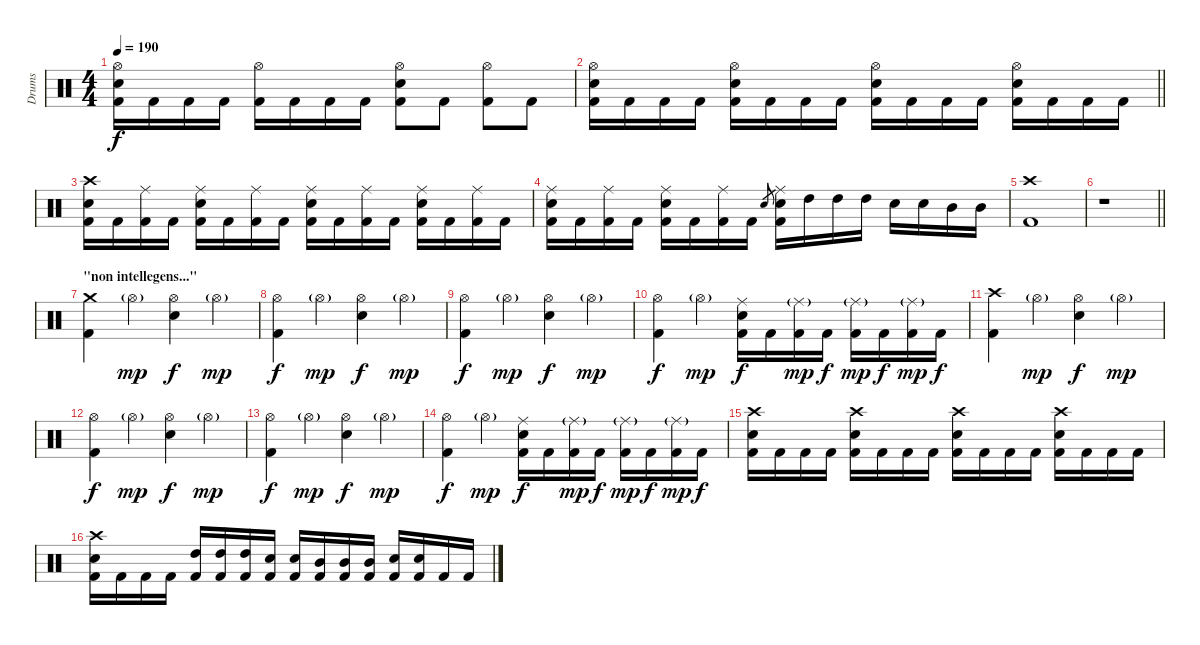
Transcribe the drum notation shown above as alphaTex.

\track ("Drums" "Drums") {instrument percussion}
\staff {score}
\articulation defaults
\ts (4 4)
\tempo 190
\clef neutral
\ks c
("Hi-Hat (open)" "Snare (hit) 2" "Kick (hit) 2").16{dy f} "Kick (hit) 2".16 "Kick (hit) 2".16 "Kick (hit) 2".16 ("Hi-Hat (open)" "Kick (hit) 2").16 "Kick (hit) 2".16 "Kick (hit) 2".16 "Kick (hit) 2".16 ("Hi-Hat (open)" "Snare (hit) 2" "Kick (hit) 2").8 "Kick (hit) 2".8 ("Hi-Hat (open)" "Kick (hit) 2").8 "Kick (hit) 2".8 |
\barLineRight lightlight
("Hi-Hat (open)" "Snare (hit) 2" "Kick (hit) 2").16 "Kick (hit) 2".16 "Kick (hit) 2".16 "Kick (hit) 2".16 ("Hi-Hat (open)" "Snare (hit) 2" "Kick (hit) 2").16 "Kick (hit) 2".16 "Kick (hit) 2".16 "Kick (hit) 2".16 ("Hi-Hat (open)" "Snare (hit) 2" "Kick (hit) 2").16 "Kick (hit) 2".16 "Kick (hit) 2".16 "Kick (hit) 2".16 ("Hi-Hat (open)" "Snare (hit) 2" "Kick (hit) 2").16 "Kick (hit) 2".16 "Kick (hit) 2".16 "Kick (hit) 2".16 |
\section ("" "")
("Crash high (hit)" "Snare (hit) 2" "Kick (hit) 2").16 "Kick (hit) 2".16 ("Ride (middle)" "Kick (hit) 2").16 "Kick (hit) 2".16 ("Ride (middle)" "Snare (hit) 2" "Kick (hit) 2").16 "Kick (hit) 2".16 ("Ride (middle)" "Kick (hit) 2").16 "Kick (hit) 2".16 ("Ride (middle)" "Snare (hit) 2" "Kick (hit) 2").16 "Kick (hit) 2".16 ("Ride (middle)" "Kick (hit) 2").16 "Kick (hit) 2".16 ("Ride (middle)" "Snare (hit) 2" "Kick (hit) 2").16 "Kick (hit) 2".16 ("Ride (middle)" "Kick (hit) 2").16 "Kick (hit) 2".16 |
("Ride (middle)" "Snare (hit) 2" "Kick (hit) 2").16 "Kick (hit) 2".16 ("Ride (middle)" "Kick (hit) 2").16 "Kick (hit) 2".16 ("Ride (middle)" "Snare (hit) 2" "Kick (hit) 2").16 "Kick (hit) 2".16 ("Ride (middle)" "Kick (hit) 2").16 "Kick (hit) 2".16 "Snare (hit) 2".8{gr} ("Ride (middle)" "Snare (hit) 2" "Kick (hit) 2").16 "High Tom (hit)".16 "High Tom (hit)".16 "High Tom (hit)".16 "Snare (hit) 2".16 "Snare (hit) 2".16 "Mid Tom (hit)".16 "Mid Tom (hit)".16 |
("Crash high (hit)" "Kick (hit) 2").1 |
\barLineRight lightlight
r.1 |
\section ("" "\"non intellegens...\"")
("Crash medium (hit)" "Kick (hit) 2").4 "Hi-Hat (open)"{g}.4{dy mp} ("Hi-Hat (open)" "Snare (hit) 2").4{dy f} "Hi-Hat (open)"{g}.4{dy mp} |
("Hi-Hat (open)" "Kick (hit) 2").4{dy f} "Hi-Hat (open)"{g}.4{dy mp} ("Hi-Hat (open)" "Snare (hit) 2").4{dy f} "Hi-Hat (open)"{g}.4{dy mp} |
("Hi-Hat (open)" "Kick (hit) 2").4{dy f} "Hi-Hat (open)"{g}.4{dy mp} ("Hi-Hat (open)" "Snare (hit) 2").4{dy f} "Hi-Hat (open)"{g}.4{dy mp} |
("Hi-Hat (open)" "Kick (hit) 2").4{dy f} "Hi-Hat (open)"{g}.4{dy mp} ("Ride (middle)" "Snare (hit) 2" "Kick (hit) 2").16{dy f} "Kick (hit) 2".16 ("Ride (middle)"{g} "Kick (hit) 2").16{dy mp} "Kick (hit) 2".16{dy f} ("Ride (middle)"{g} "Kick (hit) 2").16{dy mp} "Kick (hit) 2".16{dy f} ("Ride (middle)"{g} "Kick (hit) 2").16{dy mp} "Kick (hit) 2".16{dy f} |
("Crash high (hit)" "Kick (hit) 2").4 "Hi-Hat (open)"{g}.4{dy mp} ("Hi-Hat (open)" "Snare (hit) 2").4{dy f} "Hi-Hat (open)"{g}.4{dy mp} |
("Hi-Hat (open)" "Kick (hit) 2").4{dy f} "Hi-Hat (open)"{g}.4{dy mp} ("Hi-Hat (open)" "Snare (hit) 2").4{dy f} "Hi-Hat (open)"{g}.4{dy mp} |
("Hi-Hat (open)" "Kick (hit) 2").4{dy f} "Hi-Hat (open)"{g}.4{dy mp} ("Hi-Hat (open)" "Snare (hit) 2").4{dy f} "Hi-Hat (open)"{g}.4{dy mp} |
("Hi-Hat (open)" "Kick (hit) 2").4{dy f} "Hi-Hat (open)"{g}.4{dy mp} ("Ride (middle)" "Snare (hit) 2" "Kick (hit) 2").16{dy f} "Kick (hit) 2".16 ("Ride (middle)"{g} "Kick (hit) 2").16{dy mp} "Kick (hit) 2".16{dy f} ("Ride (middle)"{g} "Kick (hit) 2").16{dy mp} "Kick (hit) 2".16{dy f} ("Ride (middle)"{g} "Kick (hit) 2").16{dy mp} "Kick (hit) 2".16{dy f} |
("Crash high (hit)" "Snare (hit) 2" "Kick (hit) 2").16 "Kick (hit) 2".16 "Kick (hit) 2".16 "Kick (hit) 2".16 ("Crash high (hit)" "Snare (hit) 2" "Kick (hit) 2").16 "Kick (hit) 2".16 "Kick (hit) 2".16 "Kick (hit) 2".16 ("Crash high (hit)" "Snare (hit) 2" "Kick (hit) 2").16 "Kick (hit) 2".16 "Kick (hit) 2".16 "Kick (hit) 2".16 ("Crash high (hit)" "Snare (hit) 2" "Kick (hit) 2").16 "Kick (hit) 2".16 "Kick (hit) 2".16 "Kick (hit) 2".16 |
("Crash high (hit)" "Snare (hit) 2" "Kick (hit) 2").16 "Kick (hit) 2".16 "Kick (hit) 2".16 "Kick (hit) 2".16 ("High Tom (hit)" "Kick (hit) 2").16 ("High Tom (hit)" "Kick (hit) 2").16 ("High Tom (hit)" "Kick (hit) 2").16 ("Snare (hit) 2" "Kick (hit) 2").16 ("Snare (hit) 2" "Kick (hit) 2").16 ("Mid Tom (hit)" "Kick (hit) 2").16 ("Mid Tom (hit)" "Kick (hit) 2").16 ("Mid Tom (hit)" "Kick (hit) 2").16 ("Snare (hit) 2" "Kick (hit) 2").16 ("Snare (hit) 2" "Kick (hit) 2").16 "Kick (hit) 2".16 "Kick (hit) 2".16
